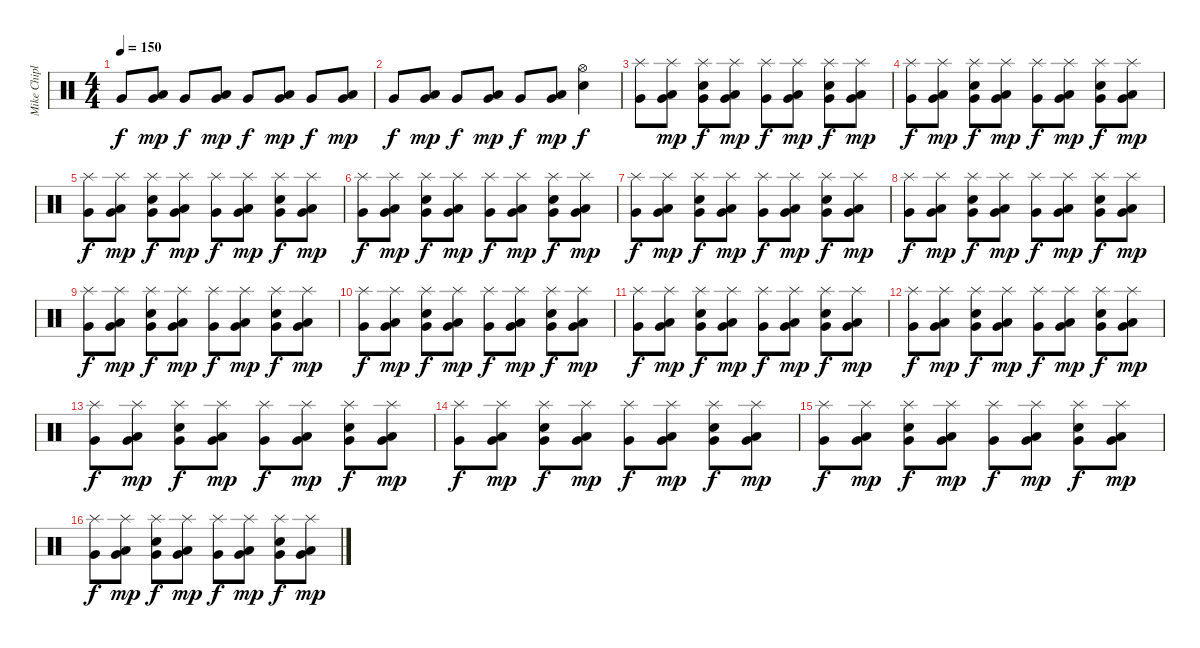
\track ("Mike Chiplin" "Mike Chipl") {instrument percussion}
\staff {score}
\articulation defaults
\ts (4 4)
\tempo 150
\clef neutral
\ks c "Very Low Tom (hit)".8{dy f}
("Low Floor Tom (hit)" "Very Low Tom (hit)").8{dy mp} "Very Low Tom (hit)".8{dy f} ("Low Floor Tom (hit)" "Very Low Tom (hit)").8{dy mp} "Very Low Tom (hit)".8{dy f} ("Low Floor Tom (hit)" "Very Low Tom (hit)").8{dy mp} "Very Low Tom (hit)".8{dy f} ("Low Floor Tom (hit)" "Very Low Tom (hit)").8{dy mp} |
"Very Low Tom (hit)".8{dy f} ("Low Floor Tom (hit)" "Very Low Tom (hit)").8{dy mp} "Very Low Tom (hit)".8{dy f} ("Low Floor Tom (hit)" "Very Low Tom (hit)").8{dy mp} "Very Low Tom (hit)".8{dy f} ("Low Floor Tom (hit)" "Very Low Tom (hit)").8{dy mp} ("Electric Snare (hit)" "Hi-Hat (open)").4{dy f} |
("Very Low Tom (hit)" "Splash (hit)").8 ("Low Floor Tom (hit)" "Very Low Tom (hit)" "Splash (hit)").8{dy mp} ("Very Low Tom (hit)" "Snare (hit) 2" "Splash (hit)").8{dy f} ("Low Floor Tom (hit)" "Very Low Tom (hit)" "Splash (hit)").8{dy mp} ("Very Low Tom (hit)" "Splash (hit)").8{dy f} ("Low Floor Tom (hit)" "Very Low Tom (hit)" "Splash (hit)").8{dy mp} ("Very Low Tom (hit)" "Snare (hit) 2" "Splash (hit)").8{dy f} ("Low Floor Tom (hit)" "Very Low Tom (hit)" "Splash (hit)").8{dy mp} |
("Very Low Tom (hit)" "Splash (hit)").8{dy f} ("Low Floor Tom (hit)" "Very Low Tom (hit)" "Splash (hit)").8{dy mp} ("Very Low Tom (hit)" "Snare (hit) 2" "Splash (hit)").8{dy f} ("Low Floor Tom (hit)" "Very Low Tom (hit)" "Splash (hit)").8{dy mp} ("Very Low Tom (hit)" "Splash (hit)").8{dy f} ("Low Floor Tom (hit)" "Very Low Tom (hit)" "Splash (hit)").8{dy mp} ("Very Low Tom (hit)" "Snare (hit) 2" "Splash (hit)").8{dy f} ("Low Floor Tom (hit)" "Very Low Tom (hit)" "Splash (hit)").8{dy mp} |
("Very Low Tom (hit)" "Splash (hit)").8{dy f} ("Low Floor Tom (hit)" "Very Low Tom (hit)" "Splash (hit)").8{dy mp} ("Very Low Tom (hit)" "Snare (hit) 2" "Splash (hit)").8{dy f} ("Low Floor Tom (hit)" "Very Low Tom (hit)" "Splash (hit)").8{dy mp} ("Very Low Tom (hit)" "Splash (hit)").8{dy f} ("Low Floor Tom (hit)" "Very Low Tom (hit)" "Splash (hit)").8{dy mp} ("Very Low Tom (hit)" "Snare (hit) 2" "Splash (hit)").8{dy f} ("Low Floor Tom (hit)" "Very Low Tom (hit)" "Splash (hit)").8{dy mp} |
("Very Low Tom (hit)" "Splash (hit)").8{dy f} ("Low Floor Tom (hit)" "Very Low Tom (hit)" "Splash (hit)").8{dy mp} ("Very Low Tom (hit)" "Snare (hit) 2" "Splash (hit)").8{dy f} ("Low Floor Tom (hit)" "Very Low Tom (hit)" "Splash (hit)").8{dy mp} ("Very Low Tom (hit)" "Splash (hit)").8{dy f} ("Low Floor Tom (hit)" "Very Low Tom (hit)" "Splash (hit)").8{dy mp} ("Very Low Tom (hit)" "Snare (hit) 2" "Splash (hit)").8{dy f} ("Low Floor Tom (hit)" "Very Low Tom (hit)" "Splash (hit)").8{dy mp} |
("Very Low Tom (hit)" "Splash (hit)").8{dy f} ("Low Floor Tom (hit)" "Very Low Tom (hit)" "Splash (hit)").8{dy mp} ("Very Low Tom (hit)" "Snare (hit) 2" "Splash (hit)").8{dy f} ("Low Floor Tom (hit)" "Very Low Tom (hit)" "Splash (hit)").8{dy mp} ("Very Low Tom (hit)" "Splash (hit)").8{dy f} ("Low Floor Tom (hit)" "Very Low Tom (hit)" "Splash (hit)").8{dy mp} ("Very Low Tom (hit)" "Snare (hit) 2" "Splash (hit)").8{dy f} ("Low Floor Tom (hit)" "Very Low Tom (hit)" "Splash (hit)").8{dy mp} |
("Very Low Tom (hit)" "Splash (hit)").8{dy f} ("Low Floor Tom (hit)" "Very Low Tom (hit)" "Splash (hit)").8{dy mp} ("Very Low Tom (hit)" "Snare (hit) 2" "Splash (hit)").8{dy f} ("Low Floor Tom (hit)" "Very Low Tom (hit)" "Splash (hit)").8{dy mp} ("Very Low Tom (hit)" "Splash (hit)").8{dy f} ("Low Floor Tom (hit)" "Very Low Tom (hit)" "Splash (hit)").8{dy mp} ("Very Low Tom (hit)" "Snare (hit) 2" "Splash (hit)").8{dy f} ("Low Floor Tom (hit)" "Very Low Tom (hit)" "Splash (hit)").8{dy mp} |
("Very Low Tom (hit)" "Splash (hit)").8{dy f} ("Low Floor Tom (hit)" "Very Low Tom (hit)" "Splash (hit)").8{dy mp} ("Very Low Tom (hit)" "Snare (hit) 2" "Splash (hit)").8{dy f} ("Low Floor Tom (hit)" "Very Low Tom (hit)" "Splash (hit)").8{dy mp} ("Very Low Tom (hit)" "Splash (hit)").8{dy f} ("Low Floor Tom (hit)" "Very Low Tom (hit)" "Splash (hit)").8{dy mp} ("Very Low Tom (hit)" "Snare (hit) 2" "Splash (hit)").8{dy f} ("Low Floor Tom (hit)" "Very Low Tom (hit)" "Splash (hit)").8{dy mp} |
("Very Low Tom (hit)" "Splash (hit)").8{dy f} ("Low Floor Tom (hit)" "Very Low Tom (hit)" "Splash (hit)").8{dy mp} ("Very Low Tom (hit)" "Snare (hit) 2" "Splash (hit)").8{dy f} ("Low Floor Tom (hit)" "Very Low Tom (hit)" "Splash (hit)").8{dy mp} ("Very Low Tom (hit)" "Splash (hit)").8{dy f} ("Low Floor Tom (hit)" "Very Low Tom (hit)" "Splash (hit)").8{dy mp} ("Very Low Tom (hit)" "Snare (hit) 2" "Splash (hit)").8{dy f} ("Low Floor Tom (hit)" "Very Low Tom (hit)" "Splash (hit)").8{dy mp} |
("Very Low Tom (hit)" "Splash (hit)").8{dy f} ("Low Floor Tom (hit)" "Very Low Tom (hit)" "Splash (hit)").8{dy mp} ("Very Low Tom (hit)" "Snare (hit) 2" "Splash (hit)").8{dy f} ("Low Floor Tom (hit)" "Very Low Tom (hit)" "Splash (hit)").8{dy mp} ("Very Low Tom (hit)" "Splash (hit)").8{dy f} ("Low Floor Tom (hit)" "Very Low Tom (hit)" "Splash (hit)").8{dy mp} ("Very Low Tom (hit)" "Snare (hit) 2" "Splash (hit)").8{dy f} ("Low Floor Tom (hit)" "Very Low Tom (hit)" "Splash (hit)").8{dy mp} |
("Very Low Tom (hit)" "Splash (hit)").8{dy f} ("Low Floor Tom (hit)" "Very Low Tom (hit)" "Splash (hit)").8{dy mp} ("Very Low Tom (hit)" "Snare (hit) 2" "Splash (hit)").8{dy f} ("Low Floor Tom (hit)" "Very Low Tom (hit)" "Splash (hit)").8{dy mp} ("Very Low Tom (hit)" "Splash (hit)").8{dy f} ("Low Floor Tom (hit)" "Very Low Tom (hit)" "Splash (hit)").8{dy mp} ("Very Low Tom (hit)" "Snare (hit) 2" "Splash (hit)").8{dy f} ("Low Floor Tom (hit)" "Very Low Tom (hit)" "Splash (hit)").8{dy mp} |
("Very Low Tom (hit)" "Splash (hit)").8{dy f} ("Low Floor Tom (hit)" "Very Low Tom (hit)" "Splash (hit)").8{dy mp} ("Very Low Tom (hit)" "Snare (hit) 2" "Splash (hit)").8{dy f} ("Low Floor Tom (hit)" "Very Low Tom (hit)" "Splash (hit)").8{dy mp} ("Very Low Tom (hit)" "Splash (hit)").8{dy f} ("Low Floor Tom (hit)" "Very Low Tom (hit)" "Splash (hit)").8{dy mp} ("Very Low Tom (hit)" "Snare (hit) 2" "Splash (hit)").8{dy f} ("Low Floor Tom (hit)" "Very Low Tom (hit)" "Splash (hit)").8{dy mp} |
("Very Low Tom (hit)" "Splash (hit)").8{dy f} ("Low Floor Tom (hit)" "Very Low Tom (hit)" "Splash (hit)").8{dy mp} ("Very Low Tom (hit)" "Snare (hit) 2" "Splash (hit)").8{dy f} ("Low Floor Tom (hit)" "Very Low Tom (hit)" "Splash (hit)").8{dy mp} ("Very Low Tom (hit)" "Splash (hit)").8{dy f} ("Low Floor Tom (hit)" "Very Low Tom (hit)" "Splash (hit)").8{dy mp} ("Very Low Tom (hit)" "Snare (hit) 2" "Splash (hit)").8{dy f} ("Low Floor Tom (hit)" "Very Low Tom (hit)" "Splash (hit)").8{dy mp} |
("Very Low Tom (hit)" "Splash (hit)").8{dy f} ("Low Floor Tom (hit)" "Very Low Tom (hit)" "Splash (hit)").8{dy mp} ("Very Low Tom (hit)" "Snare (hit) 2" "Splash (hit)").8{dy f} ("Low Floor Tom (hit)" "Very Low Tom (hit)" "Splash (hit)").8{dy mp} ("Very Low Tom (hit)" "Splash (hit)").8{dy f} ("Low Floor Tom (hit)" "Very Low Tom (hit)" "Splash (hit)").8{dy mp} ("Very Low Tom (hit)" "Snare (hit) 2" "Splash (hit)").8{dy f} ("Low Floor Tom (hit)" "Very Low Tom (hit)" "Splash (hit)").8{dy mp} |
("Very Low Tom (hit)" "Splash (hit)").8{dy f} ("Low Floor Tom (hit)" "Very Low Tom (hit)" "Splash (hit)").8{dy mp} ("Very Low Tom (hit)" "Snare (hit) 2" "Splash (hit)").8{dy f} ("Low Floor Tom (hit)" "Very Low Tom (hit)" "Splash (hit)").8{dy mp} ("Very Low Tom (hit)" "Splash (hit)").8{dy f} ("Low Floor Tom (hit)" "Very Low Tom (hit)" "Splash (hit)").8{dy mp} ("Very Low Tom (hit)" "Snare (hit) 2" "Splash (hit)").8{dy f} ("Low Floor Tom (hit)" "Very Low Tom (hit)" "Splash (hit)").8{dy mp}
